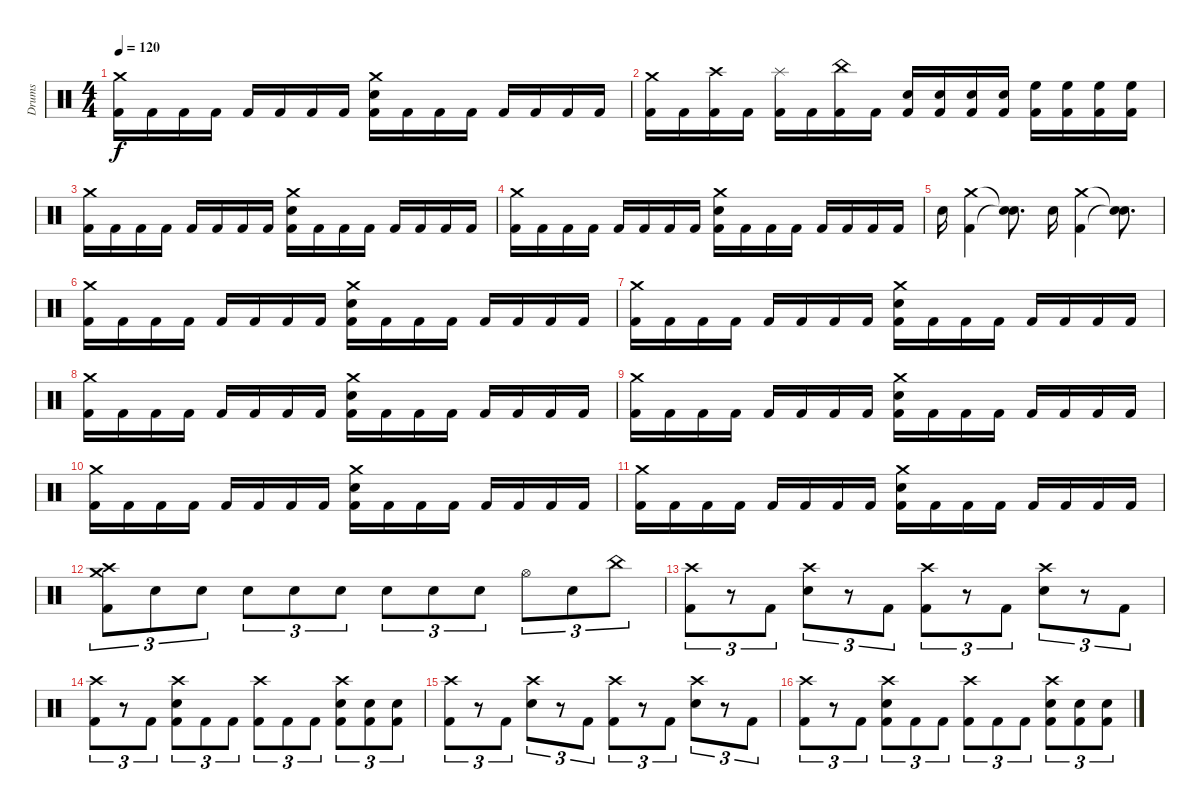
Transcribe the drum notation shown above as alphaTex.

\track ("Drums" "Drums") {instrument percussion}
\staff {score}
\articulation defaults
\ts (4 4)
\tempo 120
\clef neutral
\ks c
("Crash medium (hit)" "Kick (hit) 2").16{dy f} "Kick (hit) 2".16 "Kick (hit) 2".16 "Kick (hit) 2".16 "Kick (hit) 2".16 "Kick (hit) 2".16 "Kick (hit) 2".16 "Kick (hit) 2".16 ("Crash medium (hit)" "Snare (hit) 2" "Kick (hit) 2").16 "Kick (hit) 2".16 "Kick (hit) 2".16 "Kick (hit) 2".16 "Kick (hit) 2".16 "Kick (hit) 2".16 "Kick (hit) 2".16 "Kick (hit) 2".16 |
("Crash medium (hit)" "Kick (hit) 2").16 "Kick (hit) 2".16 ("Crash high (hit)" "Kick (hit) 2").16 "Kick (hit) 2".16 ("Splash (hit)" "Kick (hit) 2").16 "Kick (hit) 2".16 ("China (hit)" "Kick (hit) 2").16 "Kick (hit) 2".16 ("Snare (hit) 2" "Kick (hit) 2").16 ("Snare (hit) 2" "Kick (hit) 2").16 ("Snare (hit) 2" "Kick (hit) 2").16 ("Snare (hit) 2" "Kick (hit) 2").16 ("High Floor Tom (hit)" "Kick (hit) 2").16 ("High Floor Tom (hit)" "Kick (hit) 2").16 ("High Floor Tom (hit)" "Kick (hit) 2").16 ("High Floor Tom (hit)" "Kick (hit) 2").16 |
("Crash medium (hit)" "Kick (hit) 2").16 "Kick (hit) 2".16 "Kick (hit) 2".16 "Kick (hit) 2".16 "Kick (hit) 2".16 "Kick (hit) 2".16 "Kick (hit) 2".16 "Kick (hit) 2".16 ("Crash medium (hit)" "Snare (hit) 2" "Kick (hit) 2").16 "Kick (hit) 2".16 "Kick (hit) 2".16 "Kick (hit) 2".16 "Kick (hit) 2".16 "Kick (hit) 2".16 "Kick (hit) 2".16 "Kick (hit) 2".16 |
("Crash medium (hit)" "Kick (hit) 2").16 "Kick (hit) 2".16 "Kick (hit) 2".16 "Kick (hit) 2".16 "Kick (hit) 2".16 "Kick (hit) 2".16 "Kick (hit) 2".16 "Kick (hit) 2".16 ("Crash medium (hit)" "Snare (hit) 2" "Kick (hit) 2").16 "Kick (hit) 2".16 "Kick (hit) 2".16 "Kick (hit) 2".16 "Kick (hit) 2".16 "Kick (hit) 2".16 "Kick (hit) 2".16 "Kick (hit) 2".16 |
"Snare (hit) 2".16 ("Crash medium (hit)" "Kick (hit) 2").4 ("Snare (hit)"{t} "Snare (hit)"{t}).8{d} "Snare (hit) 2".16 ("Crash medium (hit)" "Kick (hit) 2").4 ("Snare (hit)"{t} "Snare (hit)"{t}).8{d} |
("Crash medium (hit)" "Kick (hit) 2").16 "Kick (hit) 2".16 "Kick (hit) 2".16 "Kick (hit) 2".16 "Kick (hit) 2".16 "Kick (hit) 2".16 "Kick (hit) 2".16 "Kick (hit) 2".16 ("Crash medium (hit)" "Snare (hit) 2" "Kick (hit) 2").16 "Kick (hit) 2".16 "Kick (hit) 2".16 "Kick (hit) 2".16 "Kick (hit) 2".16 "Kick (hit) 2".16 "Kick (hit) 2".16 "Kick (hit) 2".16 |
("Crash medium (hit)" "Kick (hit) 2").16 "Kick (hit) 2".16 "Kick (hit) 2".16 "Kick (hit) 2".16 "Kick (hit) 2".16 "Kick (hit) 2".16 "Kick (hit) 2".16 "Kick (hit) 2".16 ("Crash medium (hit)" "Snare (hit) 2" "Kick (hit) 2").16 "Kick (hit) 2".16 "Kick (hit) 2".16 "Kick (hit) 2".16 "Kick (hit) 2".16 "Kick (hit) 2".16 "Kick (hit) 2".16 "Kick (hit) 2".16 |
("Crash medium (hit)" "Kick (hit) 2").16 "Kick (hit) 2".16 "Kick (hit) 2".16 "Kick (hit) 2".16 "Kick (hit) 2".16 "Kick (hit) 2".16 "Kick (hit) 2".16 "Kick (hit) 2".16 ("Crash medium (hit)" "Snare (hit) 2" "Kick (hit) 2").16 "Kick (hit) 2".16 "Kick (hit) 2".16 "Kick (hit) 2".16 "Kick (hit) 2".16 "Kick (hit) 2".16 "Kick (hit) 2".16 "Kick (hit) 2".16 |
("Crash medium (hit)" "Kick (hit) 2").16 "Kick (hit) 2".16 "Kick (hit) 2".16 "Kick (hit) 2".16 "Kick (hit) 2".16 "Kick (hit) 2".16 "Kick (hit) 2".16 "Kick (hit) 2".16 ("Crash medium (hit)" "Snare (hit) 2" "Kick (hit) 2").16 "Kick (hit) 2".16 "Kick (hit) 2".16 "Kick (hit) 2".16 "Kick (hit) 2".16 "Kick (hit) 2".16 "Kick (hit) 2".16 "Kick (hit) 2".16 |
("Crash medium (hit)" "Kick (hit) 2").16 "Kick (hit) 2".16 "Kick (hit) 2".16 "Kick (hit) 2".16 "Kick (hit) 2".16 "Kick (hit) 2".16 "Kick (hit) 2".16 "Kick (hit) 2".16 ("Crash medium (hit)" "Snare (hit) 2" "Kick (hit) 2").16 "Kick (hit) 2".16 "Kick (hit) 2".16 "Kick (hit) 2".16 "Kick (hit) 2".16 "Kick (hit) 2".16 "Kick (hit) 2".16 "Kick (hit) 2".16 |
("Crash medium (hit)" "Kick (hit) 2").16 "Kick (hit) 2".16 "Kick (hit) 2".16 "Kick (hit) 2".16 "Kick (hit) 2".16 "Kick (hit) 2".16 "Kick (hit) 2".16 "Kick (hit) 2".16 ("Crash medium (hit)" "Snare (hit) 2" "Kick (hit) 2").16 "Kick (hit) 2".16 "Kick (hit) 2".16 "Kick (hit) 2".16 "Kick (hit) 2".16 "Kick (hit) 2".16 "Kick (hit) 2".16 "Kick (hit) 2".16 |
("Crash medium (hit)" "Crash high (hit)" "Kick (hit) 2").8{tu (3 2)} "Snare (hit) 2".8{tu (3 2)} "Snare (hit) 2".8{tu (3 2)} "Snare (hit) 2".8{tu (3 2)} "Snare (hit) 2".8{tu (3 2)} "Snare (hit) 2".8{tu (3 2)} "Snare (hit) 2".8{tu (3 2)} "Snare (hit) 2".8{tu (3 2)} "Snare (hit) 2".8{tu (3 2)} "Hi-Hat (open)".8{tu (3 2)} "Snare (hit) 2".8{tu (3 2)} "China (hit)".8{tu (3 2)} |
("Crash high (hit)" "Kick (hit) 2").8{tu (3 2)} r.8{tu (3 2)} "Kick (hit) 2".8{tu (3 2)} ("Crash high (hit)" "Snare (hit) 2").8{tu (3 2)} r.8{tu (3 2)} "Kick (hit) 2".8{tu (3 2)} ("Crash high (hit)" "Kick (hit) 2").8{tu (3 2)} r.8{tu (3 2)} "Kick (hit) 2".8{tu (3 2)} ("Crash high (hit)" "Snare (hit) 2").8{tu (3 2)} r.8{tu (3 2)} "Kick (hit) 2".8{tu (3 2)} |
("Crash high (hit)" "Kick (hit) 2").8{tu (3 2)} r.8{tu (3 2)} "Kick (hit) 2".8{tu (3 2)} ("Crash high (hit)" "Snare (hit) 2" "Kick (hit) 2").8{tu (3 2)} "Kick (hit) 2".8{tu (3 2)} "Kick (hit) 2".8{tu (3 2)} ("Crash high (hit)" "Kick (hit) 2").8{tu (3 2)} "Kick (hit) 2".8{tu (3 2)} "Kick (hit) 2".8{tu (3 2)} ("Crash high (hit)" "Snare (hit) 2" "Kick (hit) 2").8{tu (3 2)} ("Snare (hit) 2" "Kick (hit) 2").8{tu (3 2)} ("Snare (hit) 2" "Kick (hit) 2").8{tu (3 2)} |
("Crash high (hit)" "Kick (hit) 2").8{tu (3 2)} r.8{tu (3 2)} "Kick (hit) 2".8{tu (3 2)} ("Crash high (hit)" "Snare (hit) 2").8{tu (3 2)} r.8{tu (3 2)} "Kick (hit) 2".8{tu (3 2)} ("Crash high (hit)" "Kick (hit) 2").8{tu (3 2)} r.8{tu (3 2)} "Kick (hit) 2".8{tu (3 2)} ("Crash high (hit)" "Snare (hit) 2").8{tu (3 2)} r.8{tu (3 2)} "Kick (hit) 2".8{tu (3 2)} |
("Crash high (hit)" "Kick (hit) 2").8{tu (3 2)} r.8{tu (3 2)} "Kick (hit) 2".8{tu (3 2)} ("Crash high (hit)" "Snare (hit) 2" "Kick (hit) 2").8{tu (3 2)} "Kick (hit) 2".8{tu (3 2)} "Kick (hit) 2".8{tu (3 2)} ("Crash high (hit)" "Kick (hit) 2").8{tu (3 2)} "Kick (hit) 2".8{tu (3 2)} "Kick (hit) 2".8{tu (3 2)} ("Crash high (hit)" "Snare (hit) 2" "Kick (hit) 2").8{tu (3 2)} ("Snare (hit) 2" "Kick (hit) 2").8{tu (3 2)} ("Snare (hit) 2" "Kick (hit) 2").8{tu (3 2)}
